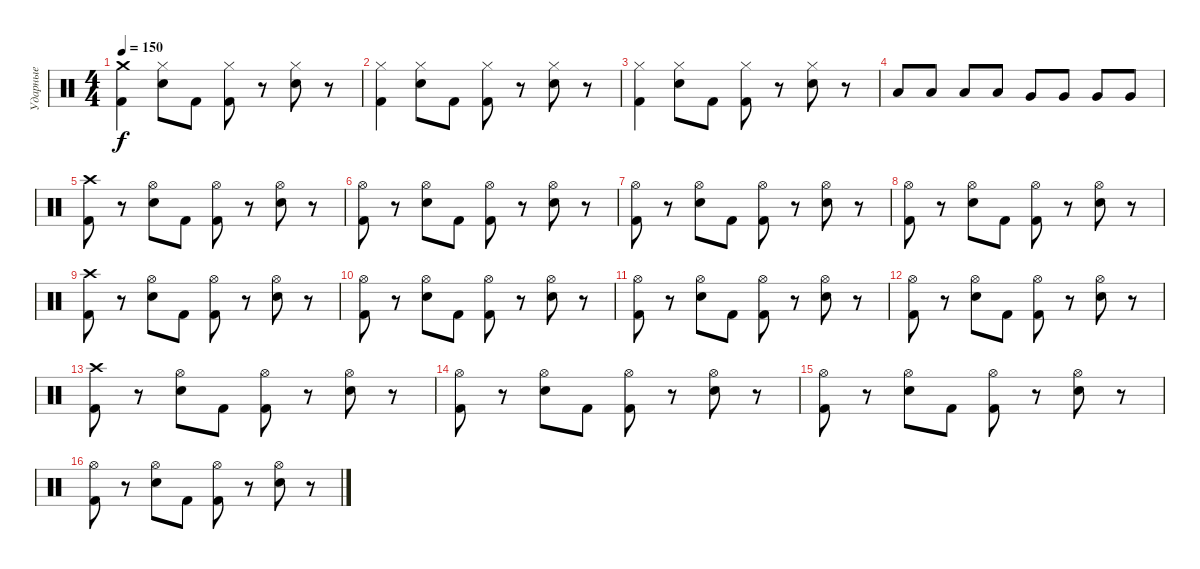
\track ("Ударные" "Ударные") {instrument percussion}
\staff {score}
\articulation defaults
\ts (4 4)
\tempo 150
\clef neutral
\ks c
("Crash medium (hit)" "Kick (hit) 2").4{dy f} ("Hi-Hat (closed)" "Snare (hit) 2").8 "Kick (hit) 2".8 ("Hi-Hat (closed)" "Kick (hit) 2").8 r.8 ("Hi-Hat (closed)" "Snare (hit) 2").8 r.8 |
("Hi-Hat (closed)" "Kick (hit) 2").4 ("Hi-Hat (closed)" "Snare (hit) 2").8 "Kick (hit) 2".8 ("Hi-Hat (closed)" "Kick (hit) 2").8 r.8 ("Hi-Hat (closed)" "Snare (hit) 2").8 r.8 |
("Hi-Hat (closed)" "Kick (hit) 2").4 ("Hi-Hat (closed)" "Snare (hit) 2").8 "Kick (hit) 2".8 ("Hi-Hat (closed)" "Kick (hit) 2").8 r.8 ("Hi-Hat (closed)" "Snare (hit) 2").8 r.8 |
"Low Tom (hit)".8 "Low Tom (hit)".8 "Low Tom (hit)".8 "Low Tom (hit)".8 "Very Low Tom (hit)".8 "Very Low Tom (hit)".8 "Very Low Tom (hit)".8 "Very Low Tom (hit)".8 |
("Kick (hit) 2" "Crash high (hit)").8 r.8 ("Hi-Hat (open)" "Snare (hit) 2").8 "Kick (hit) 2".8 ("Hi-Hat (open)" "Kick (hit) 2").8 r.8 ("Hi-Hat (open)" "Snare (hit) 2").8 r.8 |
("Kick (hit) 2" "Hi-Hat (open)").8 r.8 ("Snare (hit) 2" "Hi-Hat (open)").8 "Kick (hit) 2".8 ("Kick (hit) 2" "Hi-Hat (open)").8 r.8 ("Snare (hit) 2" "Hi-Hat (open)").8 r.8 |
("Kick (hit) 2" "Hi-Hat (open)").8 r.8 ("Snare (hit) 2" "Hi-Hat (open)").8 "Kick (hit) 2".8 ("Kick (hit) 2" "Hi-Hat (open)").8 r.8 ("Snare (hit) 2" "Hi-Hat (open)").8 r.8 |
("Kick (hit) 2" "Hi-Hat (open)").8 r.8 ("Snare (hit) 2" "Hi-Hat (open)").8 "Kick (hit) 2".8 ("Kick (hit) 2" "Hi-Hat (open)").8 r.8 ("Snare (hit) 2" "Hi-Hat (open)").8 r.8 |
("Kick (hit) 2" "Crash high (hit)").8 r.8 ("Hi-Hat (open)" "Snare (hit) 2").8 "Kick (hit) 2".8 ("Hi-Hat (open)" "Kick (hit) 2").8 r.8 ("Hi-Hat (open)" "Snare (hit) 2").8 r.8 |
("Kick (hit) 2" "Hi-Hat (open)").8 r.8 ("Snare (hit) 2" "Hi-Hat (open)").8 "Kick (hit) 2".8 ("Kick (hit) 2" "Hi-Hat (open)").8 r.8 ("Snare (hit) 2" "Hi-Hat (open)").8 r.8 |
("Kick (hit) 2" "Hi-Hat (open)").8 r.8 ("Snare (hit) 2" "Hi-Hat (open)").8 "Kick (hit) 2".8 ("Kick (hit) 2" "Hi-Hat (open)").8 r.8 ("Snare (hit) 2" "Hi-Hat (open)").8 r.8 |
("Kick (hit) 2" "Hi-Hat (open)").8 r.8 ("Snare (hit) 2" "Hi-Hat (open)").8 "Kick (hit) 2".8 ("Kick (hit) 2" "Hi-Hat (open)").8 r.8 ("Snare (hit) 2" "Hi-Hat (open)").8 r.8 |
("Kick (hit) 2" "Crash high (hit)").8 r.8 ("Hi-Hat (open)" "Snare (hit) 2").8 "Kick (hit) 2".8 ("Hi-Hat (open)" "Kick (hit) 2").8 r.8 ("Hi-Hat (open)" "Snare (hit) 2").8 r.8 |
("Kick (hit) 2" "Hi-Hat (open)").8 r.8 ("Snare (hit) 2" "Hi-Hat (open)").8 "Kick (hit) 2".8 ("Kick (hit) 2" "Hi-Hat (open)").8 r.8 ("Snare (hit) 2" "Hi-Hat (open)").8 r.8 |
("Kick (hit) 2" "Hi-Hat (open)").8 r.8 ("Snare (hit) 2" "Hi-Hat (open)").8 "Kick (hit) 2".8 ("Kick (hit) 2" "Hi-Hat (open)").8 r.8 ("Snare (hit) 2" "Hi-Hat (open)").8 r.8 |
("Kick (hit) 2" "Hi-Hat (open)").8 r.8 ("Snare (hit) 2" "Hi-Hat (open)").8 "Kick (hit) 2".8 ("Kick (hit) 2" "Hi-Hat (open)").8 r.8 ("Snare (hit) 2" "Hi-Hat (open)").8 r.8
